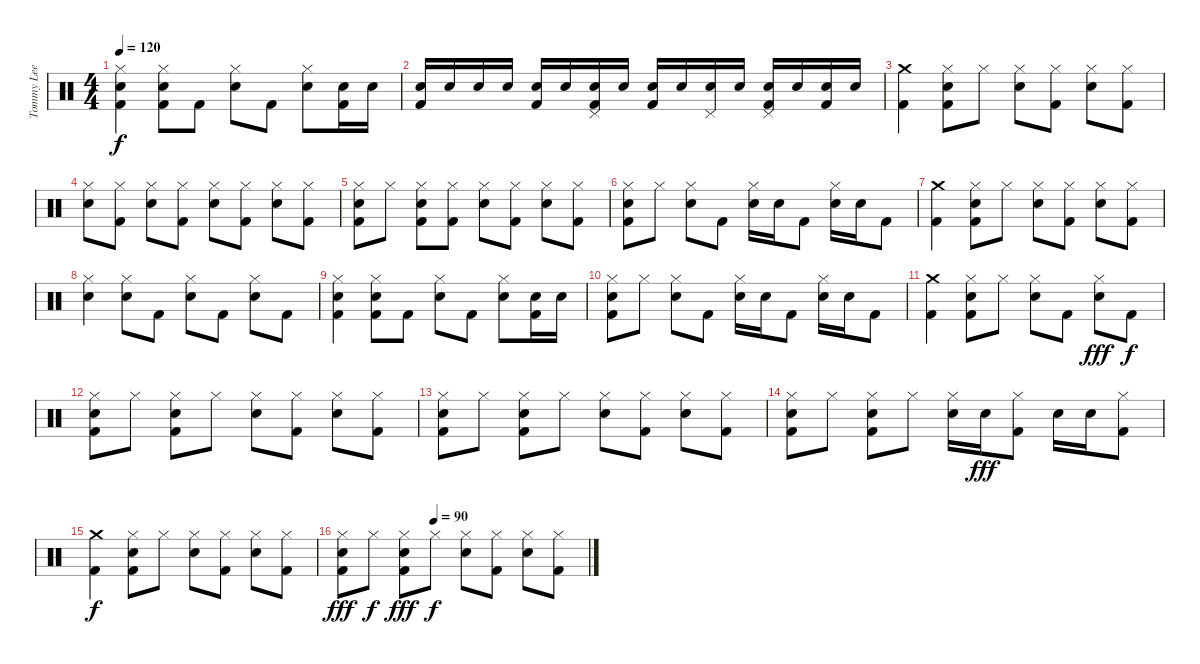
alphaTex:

\track ("Tommy Lee - Drums" "Tommy Lee ") {instrument percussion}
\staff {score}
\articulation defaults
\ts (4 4)
\tempo 120
\clef neutral
\ks c
("Hi-Hat (closed)" "Snare (hit) 2" "Kick (hit) 2").4{dy f} ("Hi-Hat (closed)" "Snare (hit) 2" "Kick (hit) 2").8 "Kick (hit) 2".8 ("Hi-Hat (closed)" "Snare (hit) 2").8 "Kick (hit) 2".8 ("Hi-Hat (closed)" "Snare (hit) 2").8 ("Snare (hit) 2" "Kick (hit) 2").16 "Snare (hit) 2".16 |
("Snare (hit) 2" "Kick (hit) 2").16 "Snare (hit) 2".16 "Snare (hit) 2".16 "Snare (hit) 2".16 ("Snare (hit) 2" "Kick (hit) 2").16 "Snare (hit) 2".16 ("Pedal Hi-Hat (hit)" "Snare (hit) 2" "Kick (hit) 2").16 "Snare (hit) 2".16 ("Snare (hit) 2" "Kick (hit) 2").16 "Snare (hit) 2".16 ("Pedal Hi-Hat (hit)" "Snare (hit) 2").16 "Snare (hit) 2".16 ("Pedal Hi-Hat (hit)" "Snare (hit) 2" "Kick (hit) 2").16 "Snare (hit) 2".16 ("Snare (hit) 2" "Kick (hit) 2").16 "Snare (hit) 2".16 |
("Crash medium (hit)" "Kick (hit) 2").4 ("Hi-Hat (closed)" "Snare (hit) 2" "Kick (hit) 2").8 "Hi-Hat (closed)".8 ("Hi-Hat (closed)" "Snare (hit) 2").8 ("Hi-Hat (closed)" "Kick (hit) 2").8 ("Hi-Hat (closed)" "Snare (hit) 2").8 ("Hi-Hat (closed)" "Kick (hit) 2").8 |
("Hi-Hat (closed)" "Snare (hit) 2").8 ("Hi-Hat (closed)" "Kick (hit) 2").8 ("Hi-Hat (closed)" "Snare (hit) 2").8 ("Hi-Hat (closed)" "Kick (hit) 2").8 ("Hi-Hat (closed)" "Snare (hit) 2").8 ("Hi-Hat (closed)" "Kick (hit) 2").8 ("Hi-Hat (closed)" "Snare (hit) 2").8 ("Hi-Hat (closed)" "Kick (hit) 2").8 |
("Hi-Hat (closed)" "Snare (hit) 2" "Kick (hit) 2").8 "Hi-Hat (closed)".8 ("Hi-Hat (closed)" "Snare (hit) 2" "Kick (hit) 2").8 ("Hi-Hat (closed)" "Kick (hit) 2").8 ("Hi-Hat (closed)" "Snare (hit) 2").8 ("Hi-Hat (closed)" "Kick (hit) 2").8 ("Hi-Hat (closed)" "Snare (hit) 2").8 ("Hi-Hat (closed)" "Kick (hit) 2").8 |
("Hi-Hat (closed)" "Snare (hit) 2" "Kick (hit) 2").8 "Hi-Hat (closed)".8 ("Hi-Hat (closed)" "Snare (hit) 2").8 "Kick (hit) 2".8 ("Hi-Hat (closed)" "Snare (hit) 2").16 "Snare (hit) 2".16 "Kick (hit) 2".8 ("Hi-Hat (closed)" "Snare (hit) 2").16 "Snare (hit) 2".16 "Kick (hit) 2".8 |
("Crash medium (hit)" "Kick (hit) 2").4 ("Hi-Hat (closed)" "Snare (hit) 2" "Kick (hit) 2").8 "Hi-Hat (closed)".8 ("Hi-Hat (closed)" "Snare (hit) 2").8 ("Hi-Hat (closed)" "Kick (hit) 2").8 ("Hi-Hat (closed)" "Snare (hit) 2").8 ("Hi-Hat (closed)" "Kick (hit) 2").8 |
("Hi-Hat (closed)" "Snare (hit) 2").4 ("Hi-Hat (closed)" "Snare (hit) 2").8 "Kick (hit) 2".8 ("Hi-Hat (closed)" "Snare (hit) 2").8 "Kick (hit) 2".8 ("Hi-Hat (closed)" "Snare (hit) 2").8 "Kick (hit) 2".8 |
("Hi-Hat (closed)" "Snare (hit) 2" "Kick (hit) 2").4 ("Hi-Hat (closed)" "Snare (hit) 2" "Kick (hit) 2").8 "Kick (hit) 2".8 ("Hi-Hat (closed)" "Snare (hit) 2").8 "Kick (hit) 2".8 ("Hi-Hat (closed)" "Snare (hit) 2").8 ("Snare (hit) 2" "Kick (hit) 2").16 "Snare (hit) 2".16 |
("Hi-Hat (closed)" "Snare (hit) 2" "Kick (hit) 2").8 "Hi-Hat (closed)".8 ("Hi-Hat (closed)" "Snare (hit) 2").8 "Kick (hit) 2".8 ("Hi-Hat (closed)" "Snare (hit) 2").16 "Snare (hit) 2".16 "Kick (hit) 2".8 ("Hi-Hat (closed)" "Snare (hit) 2").16 "Snare (hit) 2".16 "Kick (hit) 2".8 |
("Crash medium (hit)" "Kick (hit) 2").4 ("Hi-Hat (closed)" "Snare (hit) 2" "Kick (hit) 2").8 "Hi-Hat (closed)".8 ("Hi-Hat (closed)" "Snare (hit) 2").8 "Kick (hit) 2".8 ("Hi-Hat (closed)" "Snare (hit) 2").8{dy fff} "Kick (hit) 2".8{dy f} |
("Hi-Hat (closed)" "Snare (hit) 2" "Kick (hit) 2").8 "Hi-Hat (closed)".8 ("Hi-Hat (closed)" "Snare (hit) 2" "Kick (hit) 2").8 "Hi-Hat (closed)".8 ("Hi-Hat (closed)" "Snare (hit) 2").8 ("Hi-Hat (closed)" "Kick (hit) 2").8 ("Hi-Hat (closed)" "Snare (hit) 2").8 ("Hi-Hat (closed)" "Kick (hit) 2").8 |
("Hi-Hat (closed)" "Snare (hit) 2" "Kick (hit) 2").8 "Hi-Hat (closed)".8 ("Hi-Hat (closed)" "Snare (hit) 2" "Kick (hit) 2").8 "Hi-Hat (closed)".8 ("Hi-Hat (closed)" "Snare (hit) 2").8 ("Hi-Hat (closed)" "Kick (hit) 2").8 ("Hi-Hat (closed)" "Snare (hit) 2").8 ("Hi-Hat (closed)" "Kick (hit) 2").8 |
("Hi-Hat (closed)" "Snare (hit) 2" "Kick (hit) 2").8 "Hi-Hat (closed)".8 ("Hi-Hat (closed)" "Snare (hit) 2" "Kick (hit) 2").8 "Hi-Hat (closed)".8 ("Hi-Hat (closed)" "Snare (hit) 2").16 "Snare (hit) 2".16{dy fff} ("Hi-Hat (closed)" "Kick (hit) 2").8 "Snare (hit) 2".16 "Snare (hit) 2".16 ("Hi-Hat (closed)" "Kick (hit) 2").8 |
("Crash medium (hit)" "Kick (hit) 2").4{dy f} ("Hi-Hat (closed)" "Snare (hit) 2" "Kick (hit) 2").8 "Hi-Hat (closed)".8 ("Hi-Hat (closed)" "Snare (hit) 2").8 ("Hi-Hat (closed)" "Kick (hit) 2").8 ("Hi-Hat (closed)" "Snare (hit) 2").8 ("Hi-Hat (closed)" "Kick (hit) 2").8 |
\tempo (90 0.375)
("Hi-Hat (closed)" "Snare (hit) 2" "Kick (hit) 2").8{dy fff} "Hi-Hat (closed)".8{dy f} ("Hi-Hat (closed)" "Snare (hit) 2" "Kick (hit) 2").8{dy fff} "Hi-Hat (closed)".8{dy f} ("Hi-Hat (closed)" "Snare (hit) 2").8 ("Hi-Hat (closed)" "Kick (hit) 2").8 ("Hi-Hat (closed)" "Snare (hit) 2").8 ("Hi-Hat (closed)" "Kick (hit) 2").8
